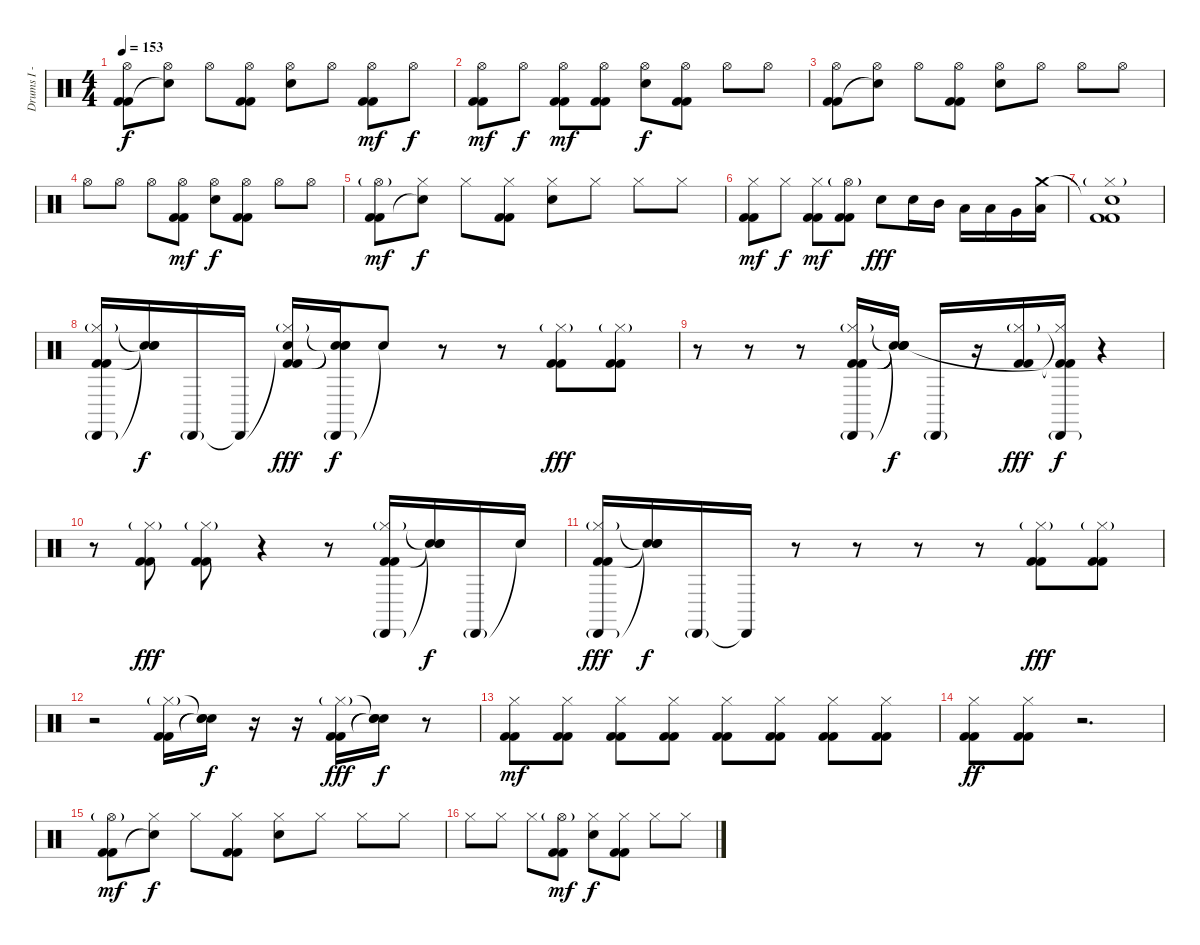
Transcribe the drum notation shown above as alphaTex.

\track ("Drums I - Adam" "Drums I - ") {instrument percussion}
\staff {score}
\articulation defaults
\ts (4 4)
\tempo 153
\clef neutral
\ks c
("Hi-Hat (open)" "Kick (hit) 2" "Kick (hit) 2").8{dy f} ("Hi-Hat (open)" "Snare (hit)"{t}).8 "Hi-Hat (open)".8 ("Hi-Hat (open)" "Kick (hit) 2" "Kick (hit) 2").8 ("Hi-Hat (open)" "Electric Snare (hit)").8 "Hi-Hat (open)".8 ("Hi-Hat (open)" "Kick (hit) 2" "Kick (hit) 2").8{dy mf} "Hi-Hat (open)".8{dy f} |
("Hi-Hat (open)" "Kick (hit) 2" "Kick (hit) 2").8{dy mf} "Hi-Hat (open)".8{dy f} ("Hi-Hat (open)" "Kick (hit) 2" "Kick (hit) 2").8{dy mf} ("Hi-Hat (open)" "Kick (hit) 2" "Kick (hit) 2").8 ("Hi-Hat (open)" "Electric Snare (hit)").8{dy f} ("Hi-Hat (open)" "Kick (hit) 2" "Kick (hit) 2").8 "Hi-Hat (open)".8 "Hi-Hat (open)".8 |
("Hi-Hat (open)" "Kick (hit) 2" "Kick (hit) 2").8 ("Hi-Hat (open)" "Snare (hit)"{t}).8 "Hi-Hat (open)".8 ("Hi-Hat (open)" "Kick (hit) 2" "Kick (hit) 2").8 ("Hi-Hat (open)" "Electric Snare (hit)").8 "Hi-Hat (open)".8 "Hi-Hat (open)".8 "Hi-Hat (open)".8 |
"Hi-Hat (open)".8 "Hi-Hat (open)".8 "Hi-Hat (open)".8 ("Hi-Hat (open)" "Kick (hit) 2" "Kick (hit) 2").8{dy mf} ("Hi-Hat (open)" "Electric Snare (hit)").8{dy f} ("Hi-Hat (open)" "Kick (hit) 2" "Kick (hit) 2").8 "Hi-Hat (open)".8 "Hi-Hat (open)".8 |
("Hi-Hat (open)"{g} "Kick (hit) 2" "Kick (hit) 2").8{dy mf} ("Hi-Hat (closed)" "Snare (hit)"{t}).8{dy f} "Hi-Hat (closed)".8 ("Hi-Hat (closed)" "Kick (hit) 2" "Kick (hit) 2").8 ("Hi-Hat (closed)" "Electric Snare (hit)").8 "Hi-Hat (closed)".8 "Hi-Hat (closed)".8 "Hi-Hat (closed)".8 |
("Hi-Hat (closed)" "Kick (hit) 2" "Kick (hit) 2").8{dy mf} "Hi-Hat (closed)".8{dy f} ("Hi-Hat (closed)" "Kick (hit) 2" "Kick (hit) 2").8{dy mf} ("Hi-Hat (open)"{g} "Kick (hit) 2" "Kick (hit) 2").8 "Electric Snare (hit)".8{dy fff} "Electric Snare (hit)".16 "Mid Tom (hit)".16 "Low Tom (hit)".16 "Low Tom (hit)".16 "Very Low Tom (hit)".16 ("Crash medium (hit)" "Low Floor Tom (hit)").16 |
("Snare (hit)"{t} "Hi-Hat (closed)"{g} "Kick (hit) 2" "Kick (hit) 2").1{volume 11} |
("Cabasa (hit)"{g} "Hi-Hat (closed)"{g} "Kick (hit) 2" "Kick (hit) 2").16 ("Snare (hit)"{t} "Snare (hit)"{t} "Snare (hit)"{t}).16{dy f} "Cabasa (hit)"{g}.16 "Cabasa (hit)"{t}.16 ("Snare (hit)"{t} "Hi-Hat (closed)"{g} "Kick (hit) 2" "Kick (hit) 2").16{dy fff} ("Cabasa (hit)"{g} "Snare (hit)"{t} "Snare (hit)"{t} "Snare (hit)"{t}).16{dy f} "Snare (hit)"{t}.8 r.8 r.8 ("Hi-Hat (closed)"{g} "Kick (hit) 2" "Kick (hit) 2").8{dy fff} ("Hi-Hat (closed)"{g} "Kick (hit) 2" "Kick (hit) 2").8 |
r.8 r.8 r.8 ("Cabasa (hit)"{g} "Hi-Hat (closed)"{g} "Kick (hit) 2" "Kick (hit) 2").16 ("Snare (hit)"{t} "Snare (hit)"{t} "Snare (hit)"{t} "Snare (hit)"{t}).16{dy f} "Cabasa (hit)"{g}.16 r.16 ("Hi-Hat (closed)"{g} "Kick (hit) 2" "Kick (hit) 2").16{dy fff} ("Cabasa (hit)"{g} "Hi-Hat (closed)"{t} "Kick (hit) 2"{t} "Kick (hit) 2"{t}).16{dy f} r.4 |
r.8 ("Hi-Hat (closed)"{g} "Kick (hit) 2" "Kick (hit) 2").8{dy fff} ("Hi-Hat (closed)"{g} "Kick (hit) 2" "Kick (hit) 2").8 r.4 r.8 ("Cabasa (hit)"{g} "Hi-Hat (closed)"{g} "Kick (hit) 2" "Kick (hit) 2").16 ("Snare (hit)"{t} "Snare (hit)"{t} "Snare (hit)"{t}).16{dy f} "Cabasa (hit)"{g}.16 "Snare (hit)"{t}.16 |
("Cabasa (hit)"{g} "Hi-Hat (closed)"{g} "Kick (hit) 2" "Kick (hit) 2").16{dy fff} ("Snare (hit)"{t} "Snare (hit)"{t} "Snare (hit)"{t}).16{dy f} "Cabasa (hit)"{g}.16 "Cabasa (hit)"{t}.16 r.8 r.8 r.8 r.8 ("Hi-Hat (closed)"{g} "Kick (hit) 2" "Kick (hit) 2").8{dy fff} ("Hi-Hat (closed)"{g} "Kick (hit) 2" "Kick (hit) 2").8 |
r.2 ("Hi-Hat (closed)"{g} "Kick (hit) 2" "Kick (hit) 2").16 ("Snare (hit)"{t} "Snare (hit)"{t} "Snare (hit)"{t}).16{dy f} r.16 r.16 ("Hi-Hat (closed)"{g} "Kick (hit) 2" "Kick (hit) 2").16{dy fff} ("Snare (hit)"{t} "Snare (hit)"{t} "Snare (hit)"{t}).16{dy f} r.8 |
("Hi-Hat (closed)" "Kick (hit) 2" "Kick (hit) 2").8{dy mf volume 0} ("Hi-Hat (closed)" "Kick (hit) 2" "Kick (hit) 2").8 ("Hi-Hat (closed)" "Kick (hit) 2" "Kick (hit) 2").8 ("Hi-Hat (closed)" "Kick (hit) 2" "Kick (hit) 2").8 ("Hi-Hat (closed)" "Kick (hit) 2" "Kick (hit) 2").8 ("Hi-Hat (closed)" "Kick (hit) 2" "Kick (hit) 2").8 ("Hi-Hat (closed)" "Kick (hit) 2" "Kick (hit) 2").8 ("Hi-Hat (closed)" "Kick (hit) 2" "Kick (hit) 2").8 |
("Hi-Hat (closed)" "Kick (hit) 2" "Kick (hit) 2").8{dy ff} ("Hi-Hat (closed)" "Kick (hit) 2" "Kick (hit) 2").8 r.2{d} |
("Hi-Hat (open)"{g} "Kick (hit) 2" "Kick (hit) 2").8{dy mf volume 13} ("Hi-Hat (closed)" "Snare (hit)"{t}).8{dy f} "Hi-Hat (closed)".8 ("Hi-Hat (closed)" "Kick (hit) 2" "Kick (hit) 2").8 ("Hi-Hat (closed)" "Electric Snare (hit)").8 "Hi-Hat (closed)".8 "Hi-Hat (closed)".8 "Hi-Hat (closed)".8 |
"Hi-Hat (closed)".8 "Hi-Hat (closed)".8 "Hi-Hat (closed)".8 ("Hi-Hat (open)"{g} "Kick (hit) 2" "Kick (hit) 2").8{dy mf} ("Hi-Hat (closed)" "Electric Snare (hit)").8{dy f} ("Hi-Hat (closed)" "Kick (hit) 2" "Kick (hit) 2").8 "Hi-Hat (closed)".8 "Hi-Hat (closed)".8
